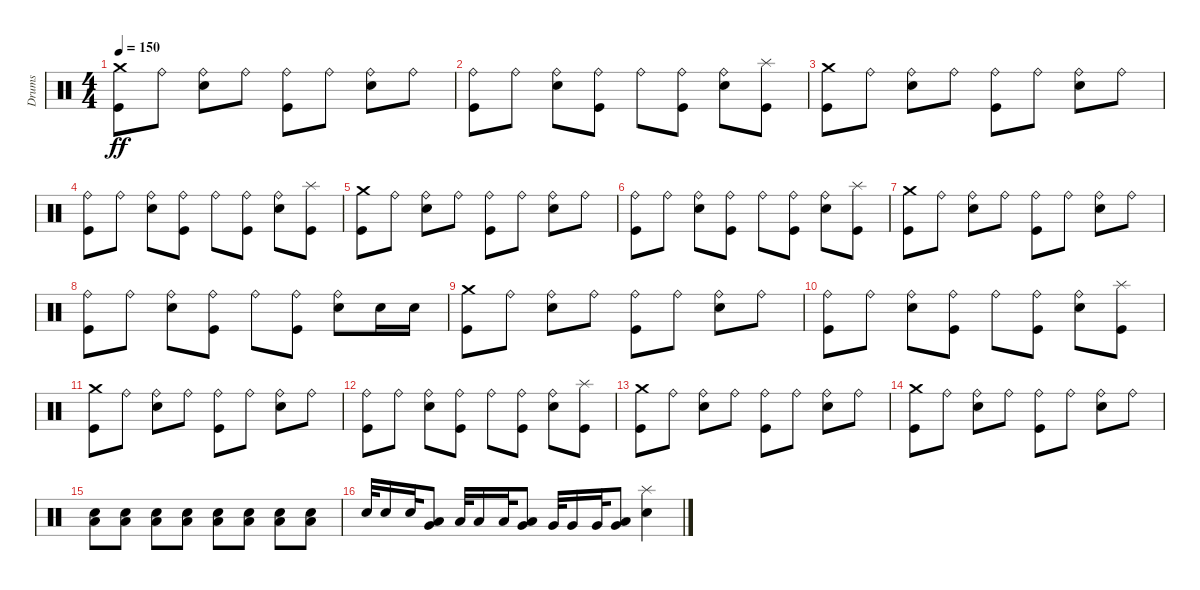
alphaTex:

\track ("Drums" "Drums") {instrument percussion}
\staff {score}
\articulation defaults
\ts (4 4)
\tempo 150
\clef neutral
\ks c
("Kick (hit)" "Crash medium (hit)").8{dy ff} "Ride (bell)".8 ("Electric Snare (hit)" "Ride (bell)").8 "Ride (bell)".8 ("Kick (hit)" "Ride (bell)").8 "Ride (bell)".8 ("Electric Snare (hit)" "Ride (bell)").8 "Ride (bell)".8 |
("Kick (hit)" "Ride (bell)").8 "Ride (bell)".8 ("Electric Snare (hit)" "Ride (bell)").8 ("Kick (hit)" "Ride (bell)").8 "Ride (bell)".8 ("Kick (hit)" "Ride (bell)").8 ("Electric Snare (hit)" "Ride (bell)").8 ("Kick (hit)" "Splash (hit)").8 |
("Kick (hit)" "Crash medium (hit)").8 "Ride (bell)".8 ("Electric Snare (hit)" "Ride (bell)").8 "Ride (bell)".8 ("Kick (hit)" "Ride (bell)").8 "Ride (bell)".8 ("Electric Snare (hit)" "Ride (bell)").8 "Ride (bell)".8 |
("Kick (hit)" "Ride (bell)").8 "Ride (bell)".8 ("Electric Snare (hit)" "Ride (bell)").8 ("Kick (hit)" "Ride (bell)").8 "Ride (bell)".8 ("Kick (hit)" "Ride (bell)").8 ("Electric Snare (hit)" "Ride (bell)").8 ("Kick (hit)" "Splash (hit)").8 |
("Kick (hit)" "Crash medium (hit)").8 "Ride (bell)".8 ("Electric Snare (hit)" "Ride (bell)").8 "Ride (bell)".8 ("Kick (hit)" "Ride (bell)").8 "Ride (bell)".8 ("Electric Snare (hit)" "Ride (bell)").8 "Ride (bell)".8 |
("Kick (hit)" "Ride (bell)").8 "Ride (bell)".8 ("Electric Snare (hit)" "Ride (bell)").8 ("Kick (hit)" "Ride (bell)").8 "Ride (bell)".8 ("Kick (hit)" "Ride (bell)").8 ("Electric Snare (hit)" "Ride (bell)").8 ("Kick (hit)" "Splash (hit)").8 |
("Kick (hit)" "Crash medium (hit)").8 "Ride (bell)".8 ("Electric Snare (hit)" "Ride (bell)").8 "Ride (bell)".8 ("Kick (hit)" "Ride (bell)").8 "Ride (bell)".8 ("Electric Snare (hit)" "Ride (bell)").8 "Ride (bell)".8 |
("Kick (hit)" "Ride (bell)").8 "Ride (bell)".8 ("Electric Snare (hit)" "Ride (bell)").8 ("Kick (hit)" "Ride (bell)").8 "Ride (bell)".8 ("Kick (hit)" "Ride (bell)").8 ("Electric Snare (hit)" "Ride (bell)").8 "Electric Snare (hit)".16 "Electric Snare (hit)".16 |
("Kick (hit)" "Crash medium (hit)").8 "Ride (bell)".8 ("Electric Snare (hit)" "Ride (bell)").8 "Ride (bell)".8 ("Kick (hit)" "Ride (bell)").8 "Ride (bell)".8 ("Electric Snare (hit)" "Ride (bell)").8 "Ride (bell)".8 |
("Kick (hit)" "Ride (bell)").8 "Ride (bell)".8 ("Electric Snare (hit)" "Ride (bell)").8 ("Kick (hit)" "Ride (bell)").8 "Ride (bell)".8 ("Kick (hit)" "Ride (bell)").8 ("Electric Snare (hit)" "Ride (bell)").8 ("Kick (hit)" "Splash (hit)").8 |
("Kick (hit)" "Crash medium (hit)").8 "Ride (bell)".8 ("Electric Snare (hit)" "Ride (bell)").8 "Ride (bell)".8 ("Kick (hit)" "Ride (bell)").8 "Ride (bell)".8 ("Electric Snare (hit)" "Ride (bell)").8 "Ride (bell)".8 |
("Kick (hit)" "Ride (bell)").8 "Ride (bell)".8 ("Electric Snare (hit)" "Ride (bell)").8 ("Kick (hit)" "Ride (bell)").8 "Ride (bell)".8 ("Kick (hit)" "Ride (bell)").8 ("Electric Snare (hit)" "Ride (bell)").8 ("Kick (hit)" "Splash (hit)").8 |
("Kick (hit)" "Crash medium (hit)").8 "Ride (bell)".8 ("Electric Snare (hit)" "Ride (bell)").8 "Ride (bell)".8 ("Kick (hit)" "Ride (bell)").8 "Ride (bell)".8 ("Electric Snare (hit)" "Ride (bell)").8 "Ride (bell)".8 |
("Kick (hit)" "Crash medium (hit)").8 "Ride (bell)".8 ("Electric Snare (hit)" "Ride (bell)").8 "Ride (bell)".8 ("Kick (hit)" "Ride (bell)").8 "Ride (bell)".8 ("Electric Snare (hit)" "Ride (bell)").8 "Ride (bell)".8 |
("Electric Snare (hit)" "Low Tom (hit)").8 ("Electric Snare (hit)" "Low Tom (hit)").8 ("Electric Snare (hit)" "Low Tom (hit)").8 ("Electric Snare (hit)" "Low Tom (hit)").8 ("Electric Snare (hit)" "Low Tom (hit)").8 ("Electric Snare (hit)" "Low Tom (hit)").8 ("Electric Snare (hit)" "Low Tom (hit)").8 ("Electric Snare (hit)" "Low Tom (hit)").8 |
"Electric Snare (hit)".32 "Electric Snare (hit)".16 "Electric Snare (hit)".32 ("Low Floor Tom (hit)" "Very Low Tom (hit)").8 "Low Tom (hit)".32 "Low Tom (hit)".16 "Low Tom (hit)".32 ("Low Floor Tom (hit)" "Very Low Tom (hit)").8 "Very Low Tom (hit)".32 "Very Low Tom (hit)".16 "Very Low Tom (hit)".32 ("Low Floor Tom (hit)" "Very Low Tom (hit)").8 ("Electric Snare (hit)" "Splash (hit)").4
